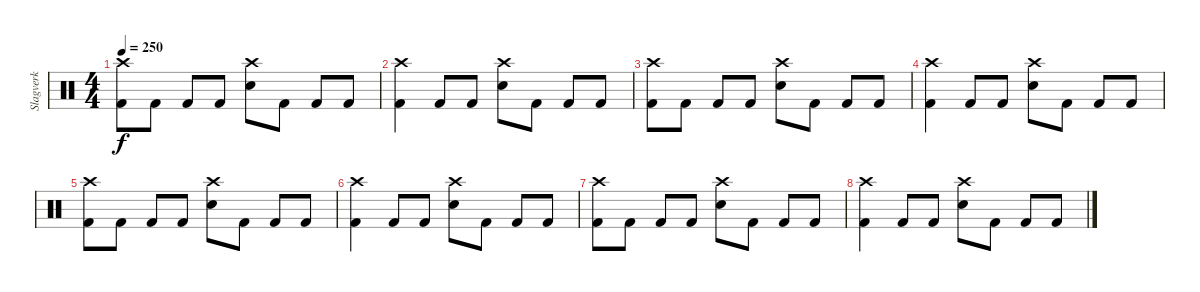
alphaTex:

\track ("Slagverk" "Slagverk") {instrument percussion}
\staff {score}
\articulation defaults
\ts (4 4)
\tempo 250
\clef neutral
\ks c
("Crash high (hit)" "Kick (hit) 2").8{dy f} "Kick (hit) 2".8 "Kick (hit) 2".8 "Kick (hit) 2".8 ("Crash high (hit)" "Electric Snare (hit)").8 "Kick (hit) 2".8 "Kick (hit) 2".8 "Kick (hit) 2".8 |
("Crash high (hit)" "Kick (hit) 2").4 "Kick (hit) 2".8 "Kick (hit) 2".8 ("Crash high (hit)" "Electric Snare (hit)").8 "Kick (hit) 2".8 "Kick (hit) 2".8 "Kick (hit) 2".8 |
("Crash high (hit)" "Kick (hit) 2").8 "Kick (hit) 2".8 "Kick (hit) 2".8 "Kick (hit) 2".8 ("Crash high (hit)" "Electric Snare (hit)").8 "Kick (hit) 2".8 "Kick (hit) 2".8 "Kick (hit) 2".8 |
("Crash high (hit)" "Kick (hit) 2").4 "Kick (hit) 2".8 "Kick (hit) 2".8 ("Crash high (hit)" "Electric Snare (hit)").8 "Kick (hit) 2".8 "Kick (hit) 2".8 "Kick (hit) 2".8 |
("Crash high (hit)" "Kick (hit) 2").8 "Kick (hit) 2".8 "Kick (hit) 2".8 "Kick (hit) 2".8 ("Crash high (hit)" "Electric Snare (hit)").8 "Kick (hit) 2".8 "Kick (hit) 2".8 "Kick (hit) 2".8 |
("Crash high (hit)" "Kick (hit) 2").4 "Kick (hit) 2".8 "Kick (hit) 2".8 ("Crash high (hit)" "Electric Snare (hit)").8 "Kick (hit) 2".8 "Kick (hit) 2".8 "Kick (hit) 2".8 |
("Crash high (hit)" "Kick (hit) 2").8 "Kick (hit) 2".8 "Kick (hit) 2".8 "Kick (hit) 2".8 ("Crash high (hit)" "Electric Snare (hit)").8 "Kick (hit) 2".8 "Kick (hit) 2".8 "Kick (hit) 2".8 |
("Crash high (hit)" "Kick (hit) 2").4 "Kick (hit) 2".8 "Kick (hit) 2".8 ("Crash high (hit)" "Electric Snare (hit)").8 "Kick (hit) 2".8 "Kick (hit) 2".8 "Kick (hit) 2".8
